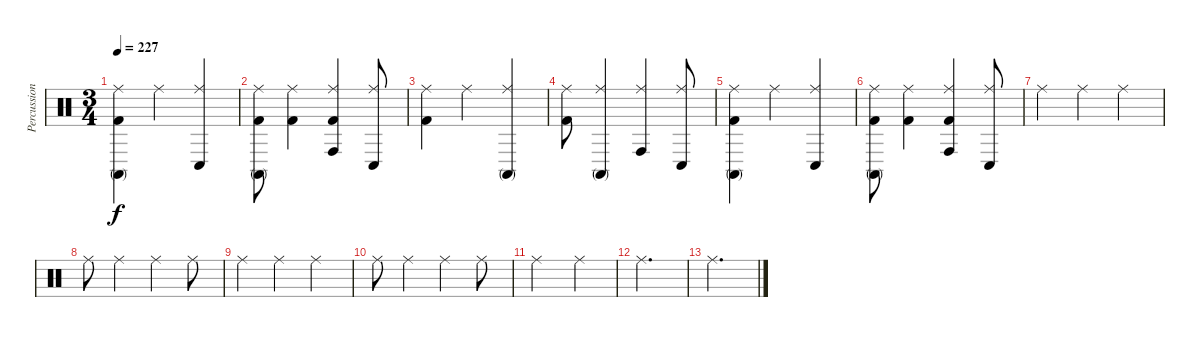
\track ("Percussion" "Percussion") {instrument percussion}
\staff {score}
\articulation defaults
\ts (3 4)
\tempo 227
\clef neutral
\ks c
("Ride (middle)" "Conga high (mute)" "Kick (hit) 2").4{dy f} "Ride (middle)".4 ("Ride (middle)" "Conga low (hit)").4 |
("Ride (middle)" "Conga high (mute)" "Kick (hit) 2").8 ("Ride (middle)" "Kick (hit) 2").4 ("Ride (middle)" "Conga high (hit)" "Kick (hit) 2").4 ("Ride (middle)" "Conga low (hit)").8 |
("Ride (middle)" "Kick (hit) 2").4 "Ride (middle)".4 ("Ride (middle)" "Conga high (mute)").4 |
("Ride (middle)" "Kick (hit) 2").8 ("Ride (middle)" "Conga high (mute)").4 ("Ride (middle)" "Conga high (hit)").4 ("Ride (middle)" "Conga low (hit)").8 |
("Ride (middle)" "Conga high (mute)" "Kick (hit) 2").4 "Ride (middle)".4 ("Ride (middle)" "Conga low (hit)").4 |
("Ride (middle)" "Conga high (mute)" "Kick (hit) 2").8 ("Ride (middle)" "Kick (hit) 2").4 ("Ride (middle)" "Conga high (hit)" "Kick (hit) 2").4 ("Ride (middle)" "Conga low (hit)").8 |
"Ride (middle)".4 "Ride (middle)".4 "Ride (middle)".4 |
"Ride (middle)".8 "Ride (middle)".4 "Ride (middle)".4 "Ride (middle)".8 |
"Ride (middle)".4 "Ride (middle)".4 "Ride (middle)".4 |
"Ride (middle)".8 "Ride (middle)".4 "Ride (middle)".4 "Ride (middle)".8 |
"Ride (middle)".2 "Ride (middle)".4 |
"Ride (middle)".2{d} |
"Ride (middle)".2{d}
